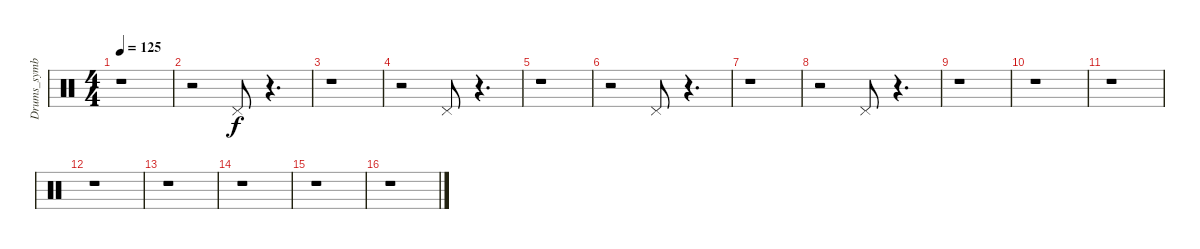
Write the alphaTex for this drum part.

\track ("Drums_symbal" "Drums_symb") {instrument percussion}
\staff {score}
\articulation defaults
\ts (4 4)
\tempo 125
\clef neutral
\ks c
r.1{dy f} |
r.2 "Pedal Hi-Hat (hit)".8 r.4{d} |
r.1 |
r.2 "Pedal Hi-Hat (hit)".8 r.4{d} |
r.1 |
r.2 "Pedal Hi-Hat (hit)".8 r.4{d} |
r.1 |
r.2 "Pedal Hi-Hat (hit)".8 r.4{d} |
r.1 |
r.1 |
r.1 |
r.1 |
r.1 |
r.1 |
r.1 |
r.1
